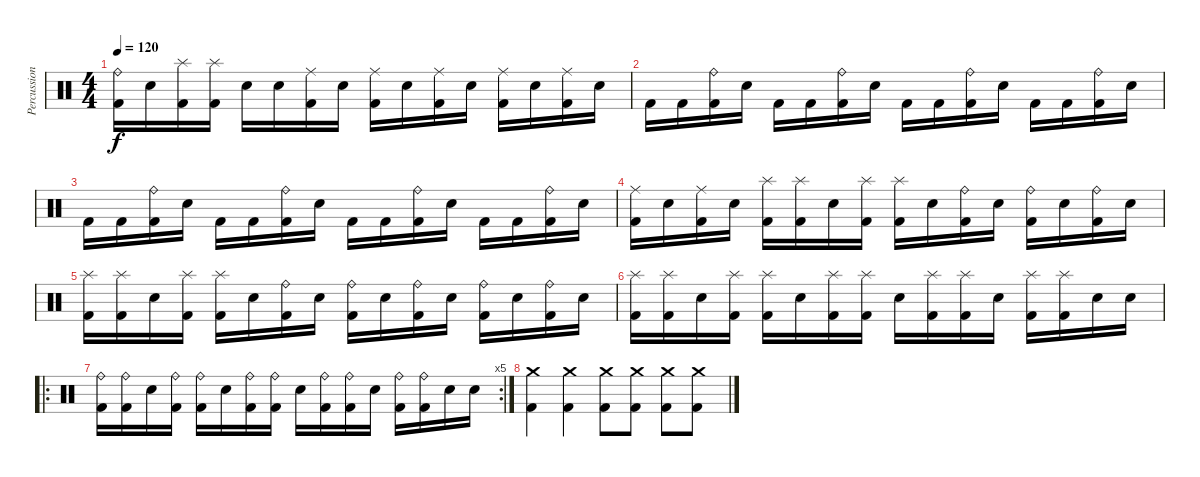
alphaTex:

\track ("Percussion" "Percussion") {instrument percussion}
\staff {score}
\articulation defaults
\ts (4 4)
\tempo 120
\clef neutral
\ks c
("Ride (bell)" "Kick (hit) 2").16{dy f} "Electric Snare (hit)".16 ("Splash (hit)" "Kick (hit) 2").16 ("Splash (hit)" "Kick (hit) 2").16 "Electric Snare (hit)".16 "Electric Snare (hit)".16 ("Ride (middle)" "Kick (hit) 2").16 "Electric Snare (hit)".16 ("Ride (middle)" "Kick (hit) 2").16 "Electric Snare (hit)".16 ("Ride (middle)" "Kick (hit) 2").16 "Electric Snare (hit)".16 ("Ride (middle)" "Kick (hit) 2").16 "Electric Snare (hit)".16 ("Ride (middle)" "Kick (hit) 2").16 "Electric Snare (hit)".16 |
"Kick (hit) 2".16 "Kick (hit) 2".16 ("Ride (bell)" "Kick (hit) 2").16 "Electric Snare (hit)".16 "Kick (hit) 2".16 "Kick (hit) 2".16 ("Ride (bell)" "Kick (hit) 2").16 "Electric Snare (hit)".16 "Kick (hit) 2".16 "Kick (hit) 2".16 ("Ride (bell)" "Kick (hit) 2").16 "Electric Snare (hit)".16 "Kick (hit) 2".16 "Kick (hit) 2".16 ("Ride (bell)" "Kick (hit) 2").16 "Electric Snare (hit)".16 |
"Kick (hit) 2".16 "Kick (hit) 2".16 ("Ride (bell)" "Kick (hit) 2").16 "Electric Snare (hit)".16 "Kick (hit) 2".16 "Kick (hit) 2".16 ("Ride (bell)" "Kick (hit) 2").16 "Electric Snare (hit)".16 "Kick (hit) 2".16 "Kick (hit) 2".16 ("Ride (bell)" "Kick (hit) 2").16 "Electric Snare (hit)".16 "Kick (hit) 2".16 "Kick (hit) 2".16 ("Ride (bell)" "Kick (hit) 2").16 "Electric Snare (hit)".16 |
("Ride (middle)" "Kick (hit) 2").16 "Electric Snare (hit)".16 ("Ride (middle)" "Kick (hit) 2").16 "Electric Snare (hit)".16 ("Splash (hit)" "Kick (hit) 2").16 ("Splash (hit)" "Kick (hit) 2").16 "Electric Snare (hit)".16 ("Splash (hit)" "Kick (hit) 2").16 ("Splash (hit)" "Kick (hit) 2").16 "Electric Snare (hit)".16 ("Ride (bell)" "Kick (hit) 2").16 "Electric Snare (hit)".16 ("Ride (bell)" "Kick (hit) 2").16 "Electric Snare (hit)".16 ("Ride (bell)" "Kick (hit) 2").16 "Electric Snare (hit)".16 |
("Splash (hit)" "Kick (hit) 2").16 ("Splash (hit)" "Kick (hit) 2").16 "Electric Snare (hit)".16 ("Splash (hit)" "Kick (hit) 2").16 ("Splash (hit)" "Kick (hit) 2").16 "Electric Snare (hit)".16 ("Ride (bell)" "Kick (hit) 2").16 "Electric Snare (hit)".16 ("Ride (bell)" "Kick (hit) 2").16 "Electric Snare (hit)".16 ("Ride (bell)" "Kick (hit) 2").16 "Electric Snare (hit)".16 ("Ride (bell)" "Kick (hit) 2").16 "Electric Snare (hit)".16 ("Ride (bell)" "Kick (hit) 2").16 "Electric Snare (hit)".16 |
("Splash (hit)" "Kick (hit) 2").16 ("Splash (hit)" "Kick (hit) 2").16 "Electric Snare (hit)".16 ("Splash (hit)" "Kick (hit) 2").16 ("Splash (hit)" "Kick (hit) 2").16 "Electric Snare (hit)".16 ("Splash (hit)" "Kick (hit) 2").16 ("Splash (hit)" "Kick (hit) 2").16 "Electric Snare (hit)".16 ("Splash (hit)" "Kick (hit) 2").16 ("Splash (hit)" "Kick (hit) 2").16 "Electric Snare (hit)".16 ("Splash (hit)" "Kick (hit) 2").16 ("Splash (hit)" "Kick (hit) 2").16 "Electric Snare (hit)".16 "Electric Snare (hit)".16 |
\ro
\rc 5
("Ride (bell)" "Kick (hit) 2").16 ("Ride (bell)" "Kick (hit) 2").16 "Electric Snare (hit)".16 ("Ride (bell)" "Kick (hit) 2").16 ("Ride (bell)" "Kick (hit) 2").16 "Electric Snare (hit)".16 ("Ride (bell)" "Kick (hit) 2").16 ("Ride (bell)" "Kick (hit) 2").16 "Electric Snare (hit)".16 ("Ride (bell)" "Kick (hit) 2").16 ("Ride (bell)" "Kick (hit) 2").16 "Electric Snare (hit)".16 ("Ride (bell)" "Kick (hit) 2").16 ("Ride (bell)" "Kick (hit) 2").16 "Electric Snare (hit)".16 "Electric Snare (hit)".16 |
("Crash medium (hit)" "Kick (hit) 2").4 ("Crash medium (hit)" "Kick (hit) 2").4 ("Crash medium (hit)" "Kick (hit) 2").8 ("Crash medium (hit)" "Kick (hit) 2").8 ("Crash medium (hit)" "Kick (hit) 2").8 ("Crash medium (hit)" "Kick (hit) 2").8
